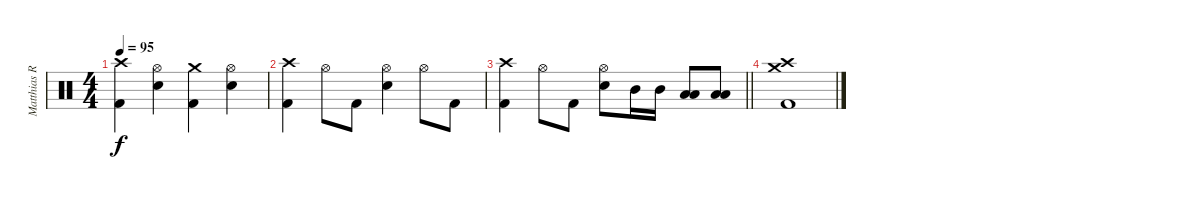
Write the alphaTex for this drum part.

\track ("Matthias R." "Matthias R") {instrument percussion}
\staff {score}
\articulation defaults
\ts (4 4)
\tempo 95
\clef neutral
\ks c
("Kick (hit) 2" "Crash high (hit)").4{dy f} ("Snare (hit) 2" "Hi-Hat (open)").4 ("Kick (hit) 2" "Crash medium (hit)").4 ("Snare (hit) 2" "Hi-Hat (open)").4 |
("Kick (hit) 2" "Crash high (hit)").4 "Hi-Hat (open)".8 "Kick (hit) 2".8 ("Snare (hit) 2" "Hi-Hat (open)").4 "Hi-Hat (open)".8 "Kick (hit) 2".8 |
\barLineRight lightlight
("Kick (hit) 2" "Crash high (hit)").4 "Hi-Hat (open)".8 "Kick (hit) 2".8 ("Snare (hit) 2" "Hi-Hat (open)").8 "Mid Tom (hit)".16 "Mid Tom (hit)".16 ("Low Tom (hit)" "Low Tom (hit)").8 ("Low Tom (hit)" "Low Tom (hit)").8 |
("Kick (hit) 2" "Crash high (hit)" "Crash medium (hit)").1
